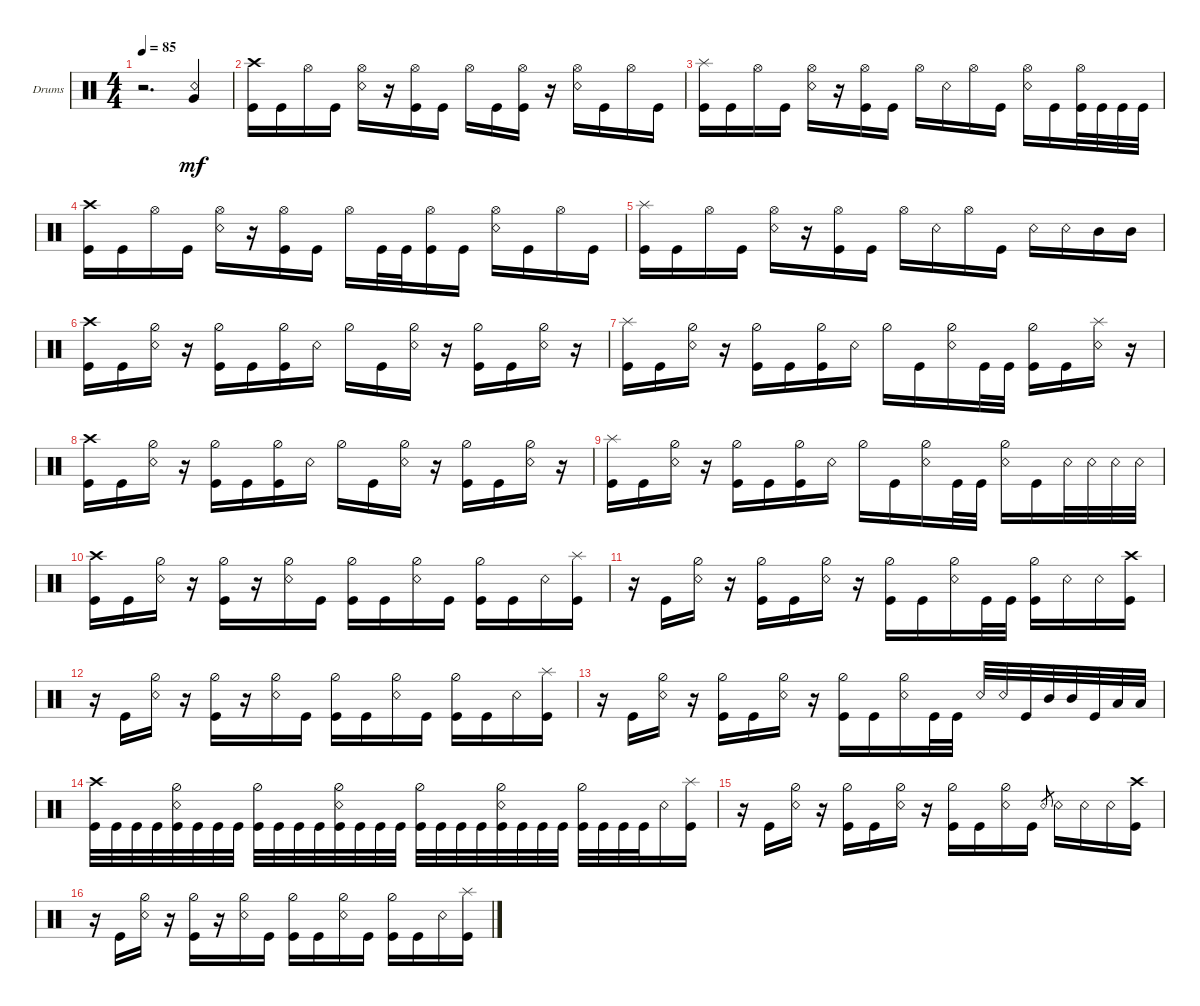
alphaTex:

\defaultSystemsLayout 4
\bracketExtendMode groupsimilarinstruments
\firstSystemTrackNameOrientation horizontal
\otherSystemsTrackNameOrientation horizontal
\track ("Drumkit" "Drums") {instrument percussion}
\staff {score}
\articulation defaults
\ts (4 4)
\tempo 85
\clef neutral
\ks c
r.2{d dy mf} ("Very Low Tom (hit)" "Snare (rim shot)").4 |
("Kick (hit)" "Crash high (hit)").16 "Kick (hit)".16 "Hi-Hat (open)".16 "Kick (hit)".16 ("Snare (rim shot)" "Hi-Hat (open)").16 r.16 ("Kick (hit)" "Hi-Hat (open)").16 "Kick (hit)".16 "Hi-Hat (open)".16 "Kick (hit)".16 ("Kick (hit)" "Hi-Hat (open)").16 r.16 ("Snare (rim shot)" "Hi-Hat (open)").16 "Kick (hit)".16 "Hi-Hat (open)".16 "Kick (hit)".16 |
("Kick (hit)" "Splash (hit)").16 "Kick (hit)".16 "Hi-Hat (open)".16 "Kick (hit)".16 ("Snare (rim shot)" "Hi-Hat (open)").16 r.16 ("Kick (hit)" "Hi-Hat (open)").16 "Kick (hit)".16 "Hi-Hat (open)".16 "Snare (rim shot)".16 "Hi-Hat (open)".16 "Kick (hit)".16 ("Snare (rim shot)" "Hi-Hat (open)").16 "Kick (hit)".16 ("Kick (hit)" "Hi-Hat (open)").32 "Kick (hit)".32 "Kick (hit)".32 "Kick (hit)".32 |
("Kick (hit)" "Crash high (hit)").16 "Kick (hit)".16 "Hi-Hat (open)".16 "Kick (hit)".16 ("Snare (rim shot)" "Hi-Hat (open)").16 r.16 ("Kick (hit)" "Hi-Hat (open)").16 "Kick (hit)".16 "Hi-Hat (open)".16 "Kick (hit)".32 "Kick (hit)".32 ("Kick (hit)" "Hi-Hat (open)").16 "Kick (hit)".16 ("Snare (rim shot)" "Hi-Hat (open)").16 "Kick (hit)".16 "Hi-Hat (open)".16 "Kick (hit)".16 |
("Kick (hit)" "Splash (hit)").16 "Kick (hit)".16 "Hi-Hat (open)".16 "Kick (hit)".16 ("Snare (rim shot)" "Hi-Hat (open)").16 r.16 ("Kick (hit)" "Hi-Hat (open)").16 "Kick (hit)".16 "Hi-Hat (open)".16 "Snare (rim shot)".16 "Hi-Hat (open)".16 "Kick (hit)".16 "Snare (rim shot)".16 "Snare (rim shot)".16 "Mid Tom (hit)".16 "Mid Tom (hit)".16 |
("Kick (hit)" "Crash high (hit)").16 "Kick (hit)".16 ("Snare (rim shot)" "Hi-Hat (half)").16 r.16 ("Kick (hit)" "Hi-Hat (half)").16 "Kick (hit)".16 ("Kick (hit)" "Hi-Hat (half)").16 "Snare (rim shot)".16 "Hi-Hat (half)".16 "Kick (hit)".16 ("Snare (rim shot)" "Hi-Hat (half)").16 r.16 ("Kick (hit)" "Hi-Hat (half)").16 "Kick (hit)".16 ("Snare (rim shot)" "Hi-Hat (half)").16 r.16 |
("Kick (hit)" "Splash (hit)").16 "Kick (hit)".16 ("Snare (rim shot)" "Hi-Hat (half)").16 r.16 ("Kick (hit)" "Hi-Hat (half)").16 "Kick (hit)".16 ("Kick (hit)" "Hi-Hat (half)").16 "Snare (rim shot)".16 "Hi-Hat (half)".16 "Kick (hit)".16 ("Snare (rim shot)" "Hi-Hat (half)").16 "Kick (hit)".32 "Kick (hit)".32 ("Hi-Hat (half)" "Kick (hit)").16 "Kick (hit)".16 ("Snare (rim shot)" "Splash (hit)").16 r.16 |
("Kick (hit)" "Crash high (hit)").16 "Kick (hit)".16 ("Snare (rim shot)" "Hi-Hat (half)").16 r.16 ("Kick (hit)" "Hi-Hat (half)").16 "Kick (hit)".16 ("Kick (hit)" "Hi-Hat (half)").16 "Snare (rim shot)".16 "Hi-Hat (half)".16 "Kick (hit)".16 ("Snare (rim shot)" "Hi-Hat (half)").16 r.16 ("Kick (hit)" "Hi-Hat (half)").16 "Kick (hit)".16 ("Snare (rim shot)" "Hi-Hat (half)").16 r.16 |
("Kick (hit)" "Splash (hit)").16 "Kick (hit)".16 ("Snare (rim shot)" "Hi-Hat (half)").16 r.16 ("Kick (hit)" "Hi-Hat (half)").16 "Kick (hit)".16 ("Kick (hit)" "Hi-Hat (half)").16 "Snare (rim shot)".16 "Hi-Hat (half)".16 "Kick (hit)".16 ("Snare (rim shot)" "Hi-Hat (half)").16 "Kick (hit)".32 "Kick (hit)".32 ("Snare (rim shot)" "Hi-Hat (half)").16 "Kick (hit)".16 "Snare (rim shot)".32 "Snare (rim shot)".32 "Snare (rim shot)".32 "Snare (rim shot)".32 |
("Kick (hit)" "Crash high (hit)").16 "Kick (hit)".16 ("Snare (rim shot)" "Hi-Hat (half)").16 r.16 ("Kick (hit)" "Hi-Hat (half)").16 r.16 ("Snare (rim shot)" "Hi-Hat (half)").16 "Kick (hit)".16 ("Kick (hit)" "Hi-Hat (half)").16 "Kick (hit)".16 ("Snare (rim shot)" "Hi-Hat (half)").16 "Kick (hit)".16 ("Kick (hit)" "Hi-Hat (half)").16 "Kick (hit)".16 "Snare (rim shot)".16 ("Kick (hit)" "Splash (hit)").16 |
r.16 "Kick (hit)".16 ("Snare (rim shot)" "Hi-Hat (half)").16 r.16 ("Kick (hit)" "Hi-Hat (half)").16 "Kick (hit)".16 ("Snare (rim shot)" "Hi-Hat (half)").16 r.16 ("Kick (hit)" "Hi-Hat (half)").16 "Kick (hit)".16 ("Snare (rim shot)" "Hi-Hat (half)").16 "Kick (hit)".32 "Kick (hit)".32 ("Kick (hit)" "Hi-Hat (half)").16 "Snare (rim shot)".16 "Snare (rim shot)".16 ("Kick (hit)" "Crash high (hit)").16 |
r.16 "Kick (hit)".16 ("Snare (rim shot)" "Hi-Hat (half)").16 r.16 ("Kick (hit)" "Hi-Hat (half)").16 r.16 ("Snare (rim shot)" "Hi-Hat (half)").16 "Kick (hit)".16 ("Kick (hit)" "Hi-Hat (half)").16 "Kick (hit)".16 ("Snare (rim shot)" "Hi-Hat (half)").16 "Kick (hit)".16 ("Kick (hit)" "Hi-Hat (half)").16 "Kick (hit)".16 "Snare (rim shot)".16 ("Kick (hit)" "Splash (hit)").16 |
r.16 "Kick (hit)".16 ("Snare (rim shot)" "Hi-Hat (half)").16 r.16 ("Kick (hit)" "Hi-Hat (half)").16 "Kick (hit)".16 ("Snare (rim shot)" "Hi-Hat (half)").16 r.16 ("Kick (hit)" "Hi-Hat (half)").16 "Kick (hit)".16 ("Snare (rim shot)" "Hi-Hat (half)").16 "Kick (hit)".32 "Kick (hit)".32 "Snare (rim shot)".32 "Snare (rim shot)".32 "Kick (hit)".32 "Mid Tom (hit)".32 "Mid Tom (hit)".32 "Kick (hit)".32 "Low Tom (hit)".32 "Low Tom (hit)".32 |
("Kick (hit)" "Crash high (hit)").32 "Kick (hit)".32 "Kick (hit)".32 "Kick (hit)".32 ("Kick (hit)" "Snare (rim shot)" "Hi-Hat (half)").32 "Kick (hit)".32 "Kick (hit)".32 "Kick (hit)".32 ("Kick (hit)" "Hi-Hat (half)").32 "Kick (hit)".32 "Kick (hit)".32 "Kick (hit)".32 ("Kick (hit)" "Snare (rim shot)" "Hi-Hat (half)").32 "Kick (hit)".32 "Kick (hit)".32 "Kick (hit)".32 ("Kick (hit)" "Hi-Hat (half)").32 "Kick (hit)".32 "Kick (hit)".32 "Kick (hit)".32 ("Kick (hit)" "Snare (rim shot)" "Hi-Hat (half)").32 "Kick (hit)".32 "Kick (hit)".32 "Kick (hit)".32 ("Kick (hit)" "Hi-Hat (half)").32 "Kick (hit)".32 "Kick (hit)".32 "Kick (hit)".32 "Snare (rim shot)".16 ("Kick (hit)" "Splash (hit)").16 |
r.16 "Kick (hit)".16 ("Snare (rim shot)" "Hi-Hat (half)").16 r.16 ("Kick (hit)" "Hi-Hat (half)").16 "Kick (hit)".16 ("Snare (rim shot)" "Hi-Hat (half)").16 r.16 ("Kick (hit)" "Hi-Hat (half)").16 "Kick (hit)".16 ("Snare (rim shot)" "Hi-Hat (half)").16 "Kick (hit)".16 "Snare (rim shot)".8{gr} "Snare (rim shot)".16 "Snare (rim shot)".16 "Snare (rim shot)".16 ("Kick (hit)" "Crash high (hit)").16 |
r.16 "Kick (hit)".16 ("Snare (rim shot)" "Hi-Hat (half)").16 r.16 ("Kick (hit)" "Hi-Hat (half)").16 r.16 ("Snare (rim shot)" "Hi-Hat (half)").16 "Kick (hit)".16 ("Kick (hit)" "Hi-Hat (half)").16 "Kick (hit)".16 ("Snare (rim shot)" "Hi-Hat (half)").16 "Kick (hit)".16 ("Kick (hit)" "Hi-Hat (half)").16 "Kick (hit)".16 "Snare (rim shot)".16 ("Kick (hit)" "Splash (hit)").16
